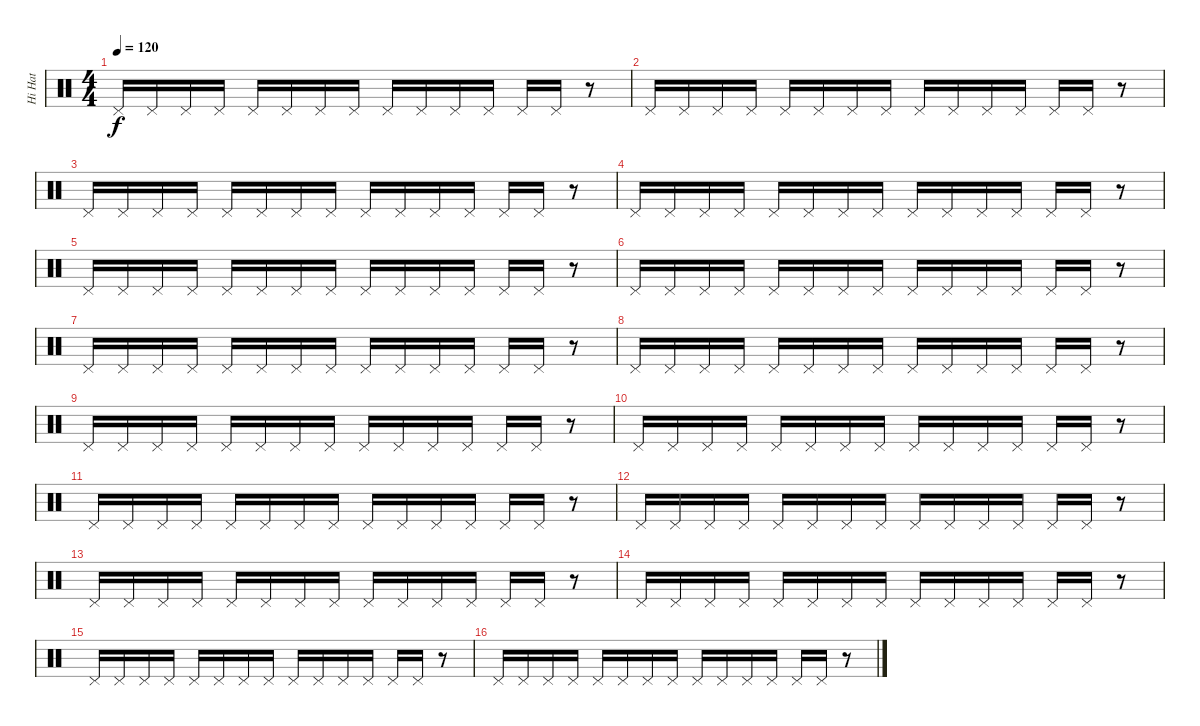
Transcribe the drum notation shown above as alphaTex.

\track ("Hi Hat" "Hi Hat") {instrument percussion}
\staff {score}
\articulation defaults
\ts (4 4)
\tempo 120
\clef neutral
\ks c "Pedal Hi-Hat (hit)".16{dy f} "Pedal Hi-Hat (hit)".16 "Pedal Hi-Hat (hit)".16 "Pedal Hi-Hat (hit)".16 "Pedal Hi-Hat (hit)".16 "Pedal Hi-Hat (hit)".16 "Pedal Hi-Hat (hit)".16 "Pedal Hi-Hat (hit)".16 "Pedal Hi-Hat (hit)".16 "Pedal Hi-Hat (hit)".16 "Pedal Hi-Hat (hit)".16 "Pedal Hi-Hat (hit)".16 "Pedal Hi-Hat (hit)".16 "Pedal Hi-Hat (hit)".16
r.8 |
"Pedal Hi-Hat (hit)".16 "Pedal Hi-Hat (hit)".16 "Pedal Hi-Hat (hit)".16 "Pedal Hi-Hat (hit)".16 "Pedal Hi-Hat (hit)".16 "Pedal Hi-Hat (hit)".16 "Pedal Hi-Hat (hit)".16 "Pedal Hi-Hat (hit)".16 "Pedal Hi-Hat (hit)".16 "Pedal Hi-Hat (hit)".16 "Pedal Hi-Hat (hit)".16 "Pedal Hi-Hat (hit)".16 "Pedal Hi-Hat (hit)".16 "Pedal Hi-Hat (hit)".16 r.8 |
"Pedal Hi-Hat (hit)".16 "Pedal Hi-Hat (hit)".16 "Pedal Hi-Hat (hit)".16 "Pedal Hi-Hat (hit)".16 "Pedal Hi-Hat (hit)".16 "Pedal Hi-Hat (hit)".16 "Pedal Hi-Hat (hit)".16 "Pedal Hi-Hat (hit)".16 "Pedal Hi-Hat (hit)".16 "Pedal Hi-Hat (hit)".16 "Pedal Hi-Hat (hit)".16 "Pedal Hi-Hat (hit)".16 "Pedal Hi-Hat (hit)".16 "Pedal Hi-Hat (hit)".16 r.8 |
"Pedal Hi-Hat (hit)".16 "Pedal Hi-Hat (hit)".16 "Pedal Hi-Hat (hit)".16 "Pedal Hi-Hat (hit)".16 "Pedal Hi-Hat (hit)".16 "Pedal Hi-Hat (hit)".16 "Pedal Hi-Hat (hit)".16 "Pedal Hi-Hat (hit)".16 "Pedal Hi-Hat (hit)".16 "Pedal Hi-Hat (hit)".16 "Pedal Hi-Hat (hit)".16 "Pedal Hi-Hat (hit)".16 "Pedal Hi-Hat (hit)".16 "Pedal Hi-Hat (hit)".16 r.8 |
"Pedal Hi-Hat (hit)".16 "Pedal Hi-Hat (hit)".16 "Pedal Hi-Hat (hit)".16 "Pedal Hi-Hat (hit)".16 "Pedal Hi-Hat (hit)".16 "Pedal Hi-Hat (hit)".16 "Pedal Hi-Hat (hit)".16 "Pedal Hi-Hat (hit)".16 "Pedal Hi-Hat (hit)".16 "Pedal Hi-Hat (hit)".16 "Pedal Hi-Hat (hit)".16 "Pedal Hi-Hat (hit)".16 "Pedal Hi-Hat (hit)".16 "Pedal Hi-Hat (hit)".16 r.8 |
"Pedal Hi-Hat (hit)".16 "Pedal Hi-Hat (hit)".16 "Pedal Hi-Hat (hit)".16 "Pedal Hi-Hat (hit)".16 "Pedal Hi-Hat (hit)".16 "Pedal Hi-Hat (hit)".16 "Pedal Hi-Hat (hit)".16 "Pedal Hi-Hat (hit)".16 "Pedal Hi-Hat (hit)".16 "Pedal Hi-Hat (hit)".16 "Pedal Hi-Hat (hit)".16 "Pedal Hi-Hat (hit)".16 "Pedal Hi-Hat (hit)".16 "Pedal Hi-Hat (hit)".16 r.8 |
"Pedal Hi-Hat (hit)".16 "Pedal Hi-Hat (hit)".16 "Pedal Hi-Hat (hit)".16 "Pedal Hi-Hat (hit)".16 "Pedal Hi-Hat (hit)".16 "Pedal Hi-Hat (hit)".16 "Pedal Hi-Hat (hit)".16 "Pedal Hi-Hat (hit)".16 "Pedal Hi-Hat (hit)".16 "Pedal Hi-Hat (hit)".16 "Pedal Hi-Hat (hit)".16 "Pedal Hi-Hat (hit)".16 "Pedal Hi-Hat (hit)".16 "Pedal Hi-Hat (hit)".16 r.8 |
"Pedal Hi-Hat (hit)".16 "Pedal Hi-Hat (hit)".16 "Pedal Hi-Hat (hit)".16 "Pedal Hi-Hat (hit)".16 "Pedal Hi-Hat (hit)".16 "Pedal Hi-Hat (hit)".16 "Pedal Hi-Hat (hit)".16 "Pedal Hi-Hat (hit)".16 "Pedal Hi-Hat (hit)".16 "Pedal Hi-Hat (hit)".16 "Pedal Hi-Hat (hit)".16 "Pedal Hi-Hat (hit)".16 "Pedal Hi-Hat (hit)".16 "Pedal Hi-Hat (hit)".16 r.8 |
"Pedal Hi-Hat (hit)".16 "Pedal Hi-Hat (hit)".16 "Pedal Hi-Hat (hit)".16 "Pedal Hi-Hat (hit)".16 "Pedal Hi-Hat (hit)".16 "Pedal Hi-Hat (hit)".16 "Pedal Hi-Hat (hit)".16 "Pedal Hi-Hat (hit)".16 "Pedal Hi-Hat (hit)".16 "Pedal Hi-Hat (hit)".16 "Pedal Hi-Hat (hit)".16 "Pedal Hi-Hat (hit)".16 "Pedal Hi-Hat (hit)".16 "Pedal Hi-Hat (hit)".16 r.8 |
"Pedal Hi-Hat (hit)".16 "Pedal Hi-Hat (hit)".16 "Pedal Hi-Hat (hit)".16 "Pedal Hi-Hat (hit)".16 "Pedal Hi-Hat (hit)".16 "Pedal Hi-Hat (hit)".16 "Pedal Hi-Hat (hit)".16 "Pedal Hi-Hat (hit)".16 "Pedal Hi-Hat (hit)".16 "Pedal Hi-Hat (hit)".16 "Pedal Hi-Hat (hit)".16 "Pedal Hi-Hat (hit)".16 "Pedal Hi-Hat (hit)".16 "Pedal Hi-Hat (hit)".16 r.8 |
"Pedal Hi-Hat (hit)".16 "Pedal Hi-Hat (hit)".16 "Pedal Hi-Hat (hit)".16 "Pedal Hi-Hat (hit)".16 "Pedal Hi-Hat (hit)".16 "Pedal Hi-Hat (hit)".16 "Pedal Hi-Hat (hit)".16 "Pedal Hi-Hat (hit)".16 "Pedal Hi-Hat (hit)".16 "Pedal Hi-Hat (hit)".16 "Pedal Hi-Hat (hit)".16 "Pedal Hi-Hat (hit)".16 "Pedal Hi-Hat (hit)".16 "Pedal Hi-Hat (hit)".16 r.8 |
"Pedal Hi-Hat (hit)".16 "Pedal Hi-Hat (hit)".16 "Pedal Hi-Hat (hit)".16 "Pedal Hi-Hat (hit)".16 "Pedal Hi-Hat (hit)".16 "Pedal Hi-Hat (hit)".16 "Pedal Hi-Hat (hit)".16 "Pedal Hi-Hat (hit)".16 "Pedal Hi-Hat (hit)".16 "Pedal Hi-Hat (hit)".16 "Pedal Hi-Hat (hit)".16 "Pedal Hi-Hat (hit)".16 "Pedal Hi-Hat (hit)".16 "Pedal Hi-Hat (hit)".16 r.8 |
"Pedal Hi-Hat (hit)".16 "Pedal Hi-Hat (hit)".16 "Pedal Hi-Hat (hit)".16 "Pedal Hi-Hat (hit)".16 "Pedal Hi-Hat (hit)".16 "Pedal Hi-Hat (hit)".16 "Pedal Hi-Hat (hit)".16 "Pedal Hi-Hat (hit)".16 "Pedal Hi-Hat (hit)".16 "Pedal Hi-Hat (hit)".16 "Pedal Hi-Hat (hit)".16 "Pedal Hi-Hat (hit)".16 "Pedal Hi-Hat (hit)".16 "Pedal Hi-Hat (hit)".16 r.8 |
"Pedal Hi-Hat (hit)".16 "Pedal Hi-Hat (hit)".16 "Pedal Hi-Hat (hit)".16 "Pedal Hi-Hat (hit)".16 "Pedal Hi-Hat (hit)".16 "Pedal Hi-Hat (hit)".16 "Pedal Hi-Hat (hit)".16 "Pedal Hi-Hat (hit)".16 "Pedal Hi-Hat (hit)".16 "Pedal Hi-Hat (hit)".16 "Pedal Hi-Hat (hit)".16 "Pedal Hi-Hat (hit)".16 "Pedal Hi-Hat (hit)".16 "Pedal Hi-Hat (hit)".16 r.8 |
"Pedal Hi-Hat (hit)".16 "Pedal Hi-Hat (hit)".16 "Pedal Hi-Hat (hit)".16 "Pedal Hi-Hat (hit)".16 "Pedal Hi-Hat (hit)".16 "Pedal Hi-Hat (hit)".16 "Pedal Hi-Hat (hit)".16 "Pedal Hi-Hat (hit)".16 "Pedal Hi-Hat (hit)".16 "Pedal Hi-Hat (hit)".16 "Pedal Hi-Hat (hit)".16 "Pedal Hi-Hat (hit)".16 "Pedal Hi-Hat (hit)".16 "Pedal Hi-Hat (hit)".16 r.8 |
"Pedal Hi-Hat (hit)".16 "Pedal Hi-Hat (hit)".16 "Pedal Hi-Hat (hit)".16 "Pedal Hi-Hat (hit)".16 "Pedal Hi-Hat (hit)".16 "Pedal Hi-Hat (hit)".16 "Pedal Hi-Hat (hit)".16 "Pedal Hi-Hat (hit)".16 "Pedal Hi-Hat (hit)".16 "Pedal Hi-Hat (hit)".16 "Pedal Hi-Hat (hit)".16 "Pedal Hi-Hat (hit)".16 "Pedal Hi-Hat (hit)".16 "Pedal Hi-Hat (hit)".16 r.8
